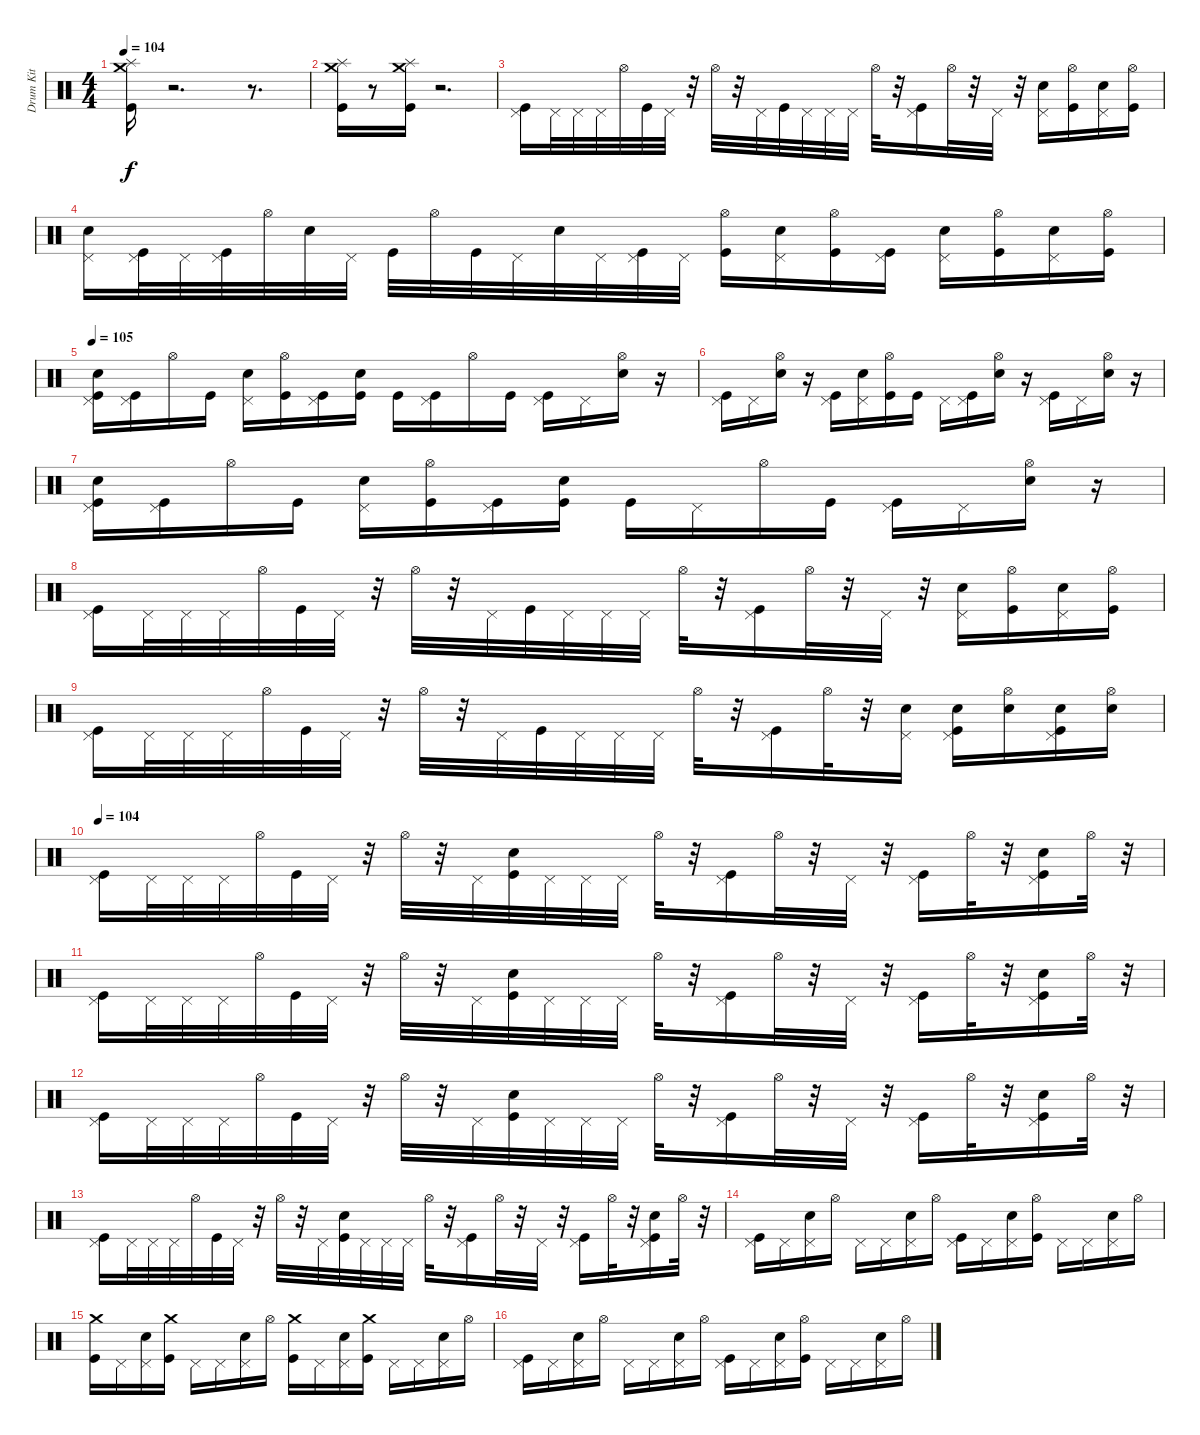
\track ("Drum Kit" "Drum Kit") {instrument percussion}
\staff {score}
\articulation defaults
\ts (4 4)
\tempo 104
\clef neutral
\ks c
("Kick (hit)" "Splash (hit)" "Crash medium (hit)").16{dy f} r.2{d} r.8{d} |
("Crash medium (hit)" "Kick (hit)" "Splash (hit)").16 r.8 ("Kick (hit)" "Splash (hit)" "Crash medium (hit)").16 r.2{d} |
("Kick (hit)" "Pedal Hi-Hat (hit)").16 "Pedal Hi-Hat (hit)".32 "Pedal Hi-Hat (hit)".32 "Pedal Hi-Hat (hit)".32 "Hi-Hat (open)".32 "Kick (hit)".32 "Pedal Hi-Hat (hit)".32 r.32 "Hi-Hat (open)".32 r.32 "Pedal Hi-Hat (hit)".32 "Kick (hit)".32 "Pedal Hi-Hat (hit)".32 "Pedal Hi-Hat (hit)".32 "Pedal Hi-Hat (hit)".32 "Hi-Hat (open)".32 r.32 ("Pedal Hi-Hat (hit)" "Kick (hit)").16 "Hi-Hat (open)".32 r.32 "Pedal Hi-Hat (hit)".32 r.32 ("Pedal Hi-Hat (hit)" "Electric Snare (hit)").16 ("Hi-Hat (open)" "Kick (hit)").16 ("Pedal Hi-Hat (hit)" "Electric Snare (hit)").16 ("Hi-Hat (open)" "Kick (hit)").16 |
("Electric Snare (hit)" "Pedal Hi-Hat (hit)").16 ("Kick (hit)" "Pedal Hi-Hat (hit)").32 "Pedal Hi-Hat (hit)".32 ("Kick (hit)" "Pedal Hi-Hat (hit)").32 "Hi-Hat (open)".32 "Electric Snare (hit)".32 "Pedal Hi-Hat (hit)".32 "Kick (hit)".32 "Hi-Hat (open)".32 "Kick (hit)".32 "Pedal Hi-Hat (hit)".32 "Electric Snare (hit)".32 "Pedal Hi-Hat (hit)".32 ("Kick (hit)" "Pedal Hi-Hat (hit)").32 "Pedal Hi-Hat (hit)".32 ("Kick (hit)" "Hi-Hat (open)").16 ("Pedal Hi-Hat (hit)" "Electric Snare (hit)").16 ("Kick (hit)" "Hi-Hat (open)").16 ("Kick (hit)" "Pedal Hi-Hat (hit)").16 ("Pedal Hi-Hat (hit)" "Electric Snare (hit)").16 ("Hi-Hat (open)" "Kick (hit)").16 ("Pedal Hi-Hat (hit)" "Electric Snare (hit)").16 ("Hi-Hat (open)" "Kick (hit)").16 |
\tempo 105
("Electric Snare (hit)" "Kick (hit)" "Pedal Hi-Hat (hit)").16 ("Kick (hit)" "Pedal Hi-Hat (hit)").16 "Hi-Hat (open)".16 "Kick (hit)".16 ("Electric Snare (hit)" "Pedal Hi-Hat (hit)").16 ("Kick (hit)" "Hi-Hat (open)").16 ("Kick (hit)" "Pedal Hi-Hat (hit)").16 ("Kick (hit)" "Electric Snare (hit)").16 "Kick (hit)".16 ("Kick (hit)" "Pedal Hi-Hat (hit)").16 "Hi-Hat (open)".16 "Kick (hit)".16 ("Kick (hit)" "Pedal Hi-Hat (hit)").16 "Pedal Hi-Hat (hit)".16 ("Electric Snare (hit)" "Hi-Hat (open)").16 r.16 |
("Pedal Hi-Hat (hit)" "Kick (hit)").16 "Pedal Hi-Hat (hit)".16 ("Hi-Hat (open)" "Electric Snare (hit)").16 r.16 ("Pedal Hi-Hat (hit)" "Kick (hit)").16 ("Pedal Hi-Hat (hit)" "Electric Snare (hit)").16 ("Hi-Hat (open)" "Kick (hit)").16 "Kick (hit)".16 "Pedal Hi-Hat (hit)".16 ("Pedal Hi-Hat (hit)" "Kick (hit)").16 ("Hi-Hat (open)" "Electric Snare (hit)").16 r.16 ("Pedal Hi-Hat (hit)" "Kick (hit)").16 "Pedal Hi-Hat (hit)".16 ("Hi-Hat (open)" "Electric Snare (hit)").16 r.16 |
("Electric Snare (hit)" "Kick (hit)" "Pedal Hi-Hat (hit)").16 ("Kick (hit)" "Pedal Hi-Hat (hit)").16 "Hi-Hat (open)".16 "Kick (hit)".16 ("Electric Snare (hit)" "Pedal Hi-Hat (hit)").16 ("Kick (hit)" "Hi-Hat (open)").16 ("Kick (hit)" "Pedal Hi-Hat (hit)").16 ("Kick (hit)" "Electric Snare (hit)").16 "Kick (hit)".16 "Pedal Hi-Hat (hit)".16 "Hi-Hat (open)".16 "Kick (hit)".16 ("Kick (hit)" "Pedal Hi-Hat (hit)").16 "Pedal Hi-Hat (hit)".16 ("Electric Snare (hit)" "Hi-Hat (open)").16 r.16 |
("Kick (hit)" "Pedal Hi-Hat (hit)").16 "Pedal Hi-Hat (hit)".32 "Pedal Hi-Hat (hit)".32 "Pedal Hi-Hat (hit)".32 "Hi-Hat (open)".32 "Kick (hit)".32 "Pedal Hi-Hat (hit)".32 r.32 "Hi-Hat (open)".32 r.32 "Pedal Hi-Hat (hit)".32 "Kick (hit)".32 "Pedal Hi-Hat (hit)".32 "Pedal Hi-Hat (hit)".32 "Pedal Hi-Hat (hit)".32 "Hi-Hat (open)".32 r.32 ("Pedal Hi-Hat (hit)" "Kick (hit)").16 "Hi-Hat (open)".32 r.32 "Pedal Hi-Hat (hit)".32 r.32 ("Pedal Hi-Hat (hit)" "Electric Snare (hit)").16 ("Hi-Hat (open)" "Kick (hit)").16 ("Pedal Hi-Hat (hit)" "Electric Snare (hit)").16 ("Hi-Hat (open)" "Kick (hit)").16 |
("Kick (hit)" "Pedal Hi-Hat (hit)").16 "Pedal Hi-Hat (hit)".32 "Pedal Hi-Hat (hit)".32 "Pedal Hi-Hat (hit)".32 "Hi-Hat (open)".32 "Kick (hit)".32 "Pedal Hi-Hat (hit)".32 r.32 "Hi-Hat (open)".32 r.32 "Pedal Hi-Hat (hit)".32 "Kick (hit)".32 "Pedal Hi-Hat (hit)".32 "Pedal Hi-Hat (hit)".32 "Pedal Hi-Hat (hit)".32 "Hi-Hat (open)".32 r.32 ("Pedal Hi-Hat (hit)" "Kick (hit)").16 "Hi-Hat (open)".32 r.32 ("Electric Snare (hit)" "Pedal Hi-Hat (hit)").16 ("Kick (hit)" "Electric Snare (hit)" "Pedal Hi-Hat (hit)").16 ("Electric Snare (hit)" "Hi-Hat (open)").16 ("Kick (hit)" "Pedal Hi-Hat (hit)" "Electric Snare (hit)").16 ("Electric Snare (hit)" "Hi-Hat (open)").16 |
\tempo 104
("Kick (hit)" "Pedal Hi-Hat (hit)").16{volume 9 balance 16} "Pedal Hi-Hat (hit)".32 "Pedal Hi-Hat (hit)".32 "Pedal Hi-Hat (hit)".32 "Hi-Hat (open)".32 "Kick (hit)".32 "Pedal Hi-Hat (hit)".32 r.32 "Hi-Hat (open)".32 r.32 "Pedal Hi-Hat (hit)".32 ("Electric Snare (hit)" "Kick (hit)").32 "Pedal Hi-Hat (hit)".32 "Pedal Hi-Hat (hit)".32 "Pedal Hi-Hat (hit)".32 "Hi-Hat (open)".32 r.32 ("Pedal Hi-Hat (hit)" "Kick (hit)").16 "Hi-Hat (open)".32 r.32 "Pedal Hi-Hat (hit)".32 r.32 ("Kick (hit)" "Pedal Hi-Hat (hit)").16 "Hi-Hat (open)".32 r.32 ("Kick (hit)" "Electric Snare (hit)" "Pedal Hi-Hat (hit)").16 "Hi-Hat (open)".32 r.32 |
("Kick (hit)" "Pedal Hi-Hat (hit)").16 "Pedal Hi-Hat (hit)".32 "Pedal Hi-Hat (hit)".32 "Pedal Hi-Hat (hit)".32 "Hi-Hat (open)".32 "Kick (hit)".32 "Pedal Hi-Hat (hit)".32 r.32 "Hi-Hat (open)".32 r.32 "Pedal Hi-Hat (hit)".32 ("Electric Snare (hit)" "Kick (hit)").32 "Pedal Hi-Hat (hit)".32 "Pedal Hi-Hat (hit)".32 "Pedal Hi-Hat (hit)".32 "Hi-Hat (open)".32 r.32 ("Pedal Hi-Hat (hit)" "Kick (hit)").16 "Hi-Hat (open)".32 r.32 "Pedal Hi-Hat (hit)".32 r.32 ("Kick (hit)" "Pedal Hi-Hat (hit)").16 "Hi-Hat (open)".32 r.32 ("Kick (hit)" "Electric Snare (hit)" "Pedal Hi-Hat (hit)").16 "Hi-Hat (open)".32 r.32 |
("Kick (hit)" "Pedal Hi-Hat (hit)").16 "Pedal Hi-Hat (hit)".32 "Pedal Hi-Hat (hit)".32 "Pedal Hi-Hat (hit)".32 "Hi-Hat (open)".32 "Kick (hit)".32 "Pedal Hi-Hat (hit)".32 r.32 "Hi-Hat (open)".32 r.32 "Pedal Hi-Hat (hit)".32 ("Electric Snare (hit)" "Kick (hit)").32 "Pedal Hi-Hat (hit)".32 "Pedal Hi-Hat (hit)".32 "Pedal Hi-Hat (hit)".32 "Hi-Hat (open)".32 r.32 ("Pedal Hi-Hat (hit)" "Kick (hit)").16 "Hi-Hat (open)".32 r.32 "Pedal Hi-Hat (hit)".32 r.32 ("Kick (hit)" "Pedal Hi-Hat (hit)").16 "Hi-Hat (open)".32 r.32 ("Kick (hit)" "Electric Snare (hit)" "Pedal Hi-Hat (hit)").16 "Hi-Hat (open)".32 r.32 |
("Kick (hit)" "Pedal Hi-Hat (hit)").16 "Pedal Hi-Hat (hit)".32 "Pedal Hi-Hat (hit)".32 "Pedal Hi-Hat (hit)".32 "Hi-Hat (open)".32 "Kick (hit)".32 "Pedal Hi-Hat (hit)".32 r.32 "Hi-Hat (open)".32 r.32 "Pedal Hi-Hat (hit)".32 ("Electric Snare (hit)" "Kick (hit)").32 "Pedal Hi-Hat (hit)".32 "Pedal Hi-Hat (hit)".32 "Pedal Hi-Hat (hit)".32 "Hi-Hat (open)".32 r.32 ("Pedal Hi-Hat (hit)" "Kick (hit)").16 "Hi-Hat (open)".32 r.32 "Pedal Hi-Hat (hit)".32 r.32 ("Kick (hit)" "Pedal Hi-Hat (hit)").16 "Hi-Hat (open)".32 r.32 ("Kick (hit)" "Electric Snare (hit)" "Pedal Hi-Hat (hit)").16 "Hi-Hat (open)".32 r.32 |
("Kick (hit)" "Pedal Hi-Hat (hit)").16 "Pedal Hi-Hat (hit)".16 ("Electric Snare (hit)" "Pedal Hi-Hat (hit)").16 "Hi-Hat (open)".16 "Pedal Hi-Hat (hit)".16 "Pedal Hi-Hat (hit)".16 ("Electric Snare (hit)" "Pedal Hi-Hat (hit)").16 "Hi-Hat (open)".16 ("Kick (hit)" "Pedal Hi-Hat (hit)").16 "Pedal Hi-Hat (hit)".16 ("Electric Snare (hit)" "Pedal Hi-Hat (hit)").16 ("Kick (hit)" "Hi-Hat (open)").16 "Pedal Hi-Hat (hit)".16 "Pedal Hi-Hat (hit)".16 ("Electric Snare (hit)" "Pedal Hi-Hat (hit)").16 "Hi-Hat (open)".16 |
("Kick (hit)" "Crash medium (hit)").16 "Pedal Hi-Hat (hit)".16 ("Pedal Hi-Hat (hit)" "Electric Snare (hit)").16 ("Kick (hit)" "Crash medium (hit)").16 "Pedal Hi-Hat (hit)".16 "Pedal Hi-Hat (hit)".16 ("Pedal Hi-Hat (hit)" "Electric Snare (hit)").16 "Hi-Hat (open)".16 ("Kick (hit)" "Crash medium (hit)").16 "Pedal Hi-Hat (hit)".16 ("Pedal Hi-Hat (hit)" "Electric Snare (hit)").16 ("Kick (hit)" "Crash medium (hit)").16 "Pedal Hi-Hat (hit)".16 "Pedal Hi-Hat (hit)".16 ("Pedal Hi-Hat (hit)" "Electric Snare (hit)").16 "Hi-Hat (open)".16 |
("Kick (hit)" "Pedal Hi-Hat (hit)").16 "Pedal Hi-Hat (hit)".16 ("Electric Snare (hit)" "Pedal Hi-Hat (hit)").16 "Hi-Hat (open)".16 "Pedal Hi-Hat (hit)".16 "Pedal Hi-Hat (hit)".16 ("Electric Snare (hit)" "Pedal Hi-Hat (hit)").16 "Hi-Hat (open)".16 ("Kick (hit)" "Pedal Hi-Hat (hit)").16 "Pedal Hi-Hat (hit)".16 ("Electric Snare (hit)" "Pedal Hi-Hat (hit)").16 ("Kick (hit)" "Hi-Hat (open)").16 "Pedal Hi-Hat (hit)".16 "Pedal Hi-Hat (hit)".16 ("Electric Snare (hit)" "Pedal Hi-Hat (hit)").16 "Hi-Hat (open)".16
